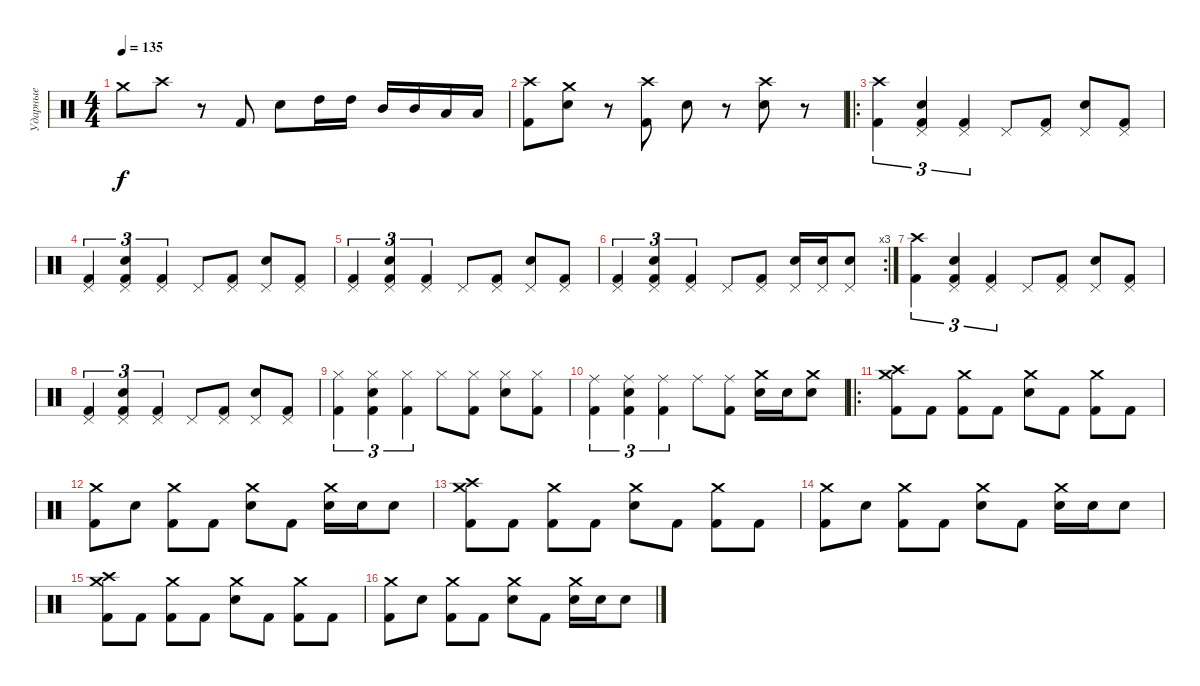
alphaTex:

\track ("Ударные" "Ударные") {instrument percussion}
\staff {score}
\articulation defaults
\ts (4 4)
\tempo 135
\clef neutral
\ks c "Crash medium (hit)".8{dy f} "Crash high (hit)".8
r.8 "Kick (hit) 2".8 "Electric Snare (hit)".8 "High Tom (hit)".16 "High Tom (hit)".16 "Mid Tom (hit)".16 "Mid Tom (hit)".16 "Low Tom (hit)".16 "Low Tom (hit)".16 |
("Kick (hit) 2" "Crash high (hit)").8 ("Electric Snare (hit)" "Crash medium (hit)").8 r.8 ("Kick (hit) 2" "Crash high (hit)").8 "Electric Snare (hit)".8 r.8 ("Electric Snare (hit)" "Crash high (hit)").8 r.8 |
\ro
("Kick (hit) 2" "Crash high (hit)").4{tu (3 2)} ("Kick (hit) 2" "Electric Snare (hit)" "Pedal Hi-Hat (hit)").4{tu (3 2)} ("Kick (hit) 2" "Pedal Hi-Hat (hit)").4{tu (3 2)} "Pedal Hi-Hat (hit)".8 ("Kick (hit) 2" "Pedal Hi-Hat (hit)").8 ("Electric Snare (hit)" "Pedal Hi-Hat (hit)").8 ("Kick (hit) 2" "Pedal Hi-Hat (hit)").8 |
("Kick (hit) 2" "Pedal Hi-Hat (hit)").4{tu (3 2)} ("Kick (hit) 2" "Electric Snare (hit)" "Pedal Hi-Hat (hit)").4{tu (3 2)} ("Kick (hit) 2" "Pedal Hi-Hat (hit)").4{tu (3 2)} "Pedal Hi-Hat (hit)".8 ("Kick (hit) 2" "Pedal Hi-Hat (hit)").8 ("Electric Snare (hit)" "Pedal Hi-Hat (hit)").8 ("Kick (hit) 2" "Pedal Hi-Hat (hit)").8 |
("Kick (hit) 2" "Pedal Hi-Hat (hit)").4{tu (3 2)} ("Kick (hit) 2" "Electric Snare (hit)" "Pedal Hi-Hat (hit)").4{tu (3 2)} ("Kick (hit) 2" "Pedal Hi-Hat (hit)").4{tu (3 2)} "Pedal Hi-Hat (hit)".8 ("Kick (hit) 2" "Pedal Hi-Hat (hit)").8 ("Electric Snare (hit)" "Pedal Hi-Hat (hit)").8 ("Kick (hit) 2" "Pedal Hi-Hat (hit)").8 |
\rc 3
("Kick (hit) 2" "Pedal Hi-Hat (hit)").4{tu (3 2)} ("Kick (hit) 2" "Electric Snare (hit)" "Pedal Hi-Hat (hit)").4{tu (3 2)} ("Kick (hit) 2" "Pedal Hi-Hat (hit)").4{tu (3 2)} "Pedal Hi-Hat (hit)".8 ("Kick (hit) 2" "Pedal Hi-Hat (hit)").8 ("Electric Snare (hit)" "Pedal Hi-Hat (hit)").16 ("Electric Snare (hit)" "Pedal Hi-Hat (hit)").16 ("Electric Snare (hit)" "Pedal Hi-Hat (hit)").8 |
("Kick (hit) 2" "Crash high (hit)").4{tu (3 2)} ("Kick (hit) 2" "Electric Snare (hit)" "Pedal Hi-Hat (hit)").4{tu (3 2)} ("Kick (hit) 2" "Pedal Hi-Hat (hit)").4{tu (3 2)} "Pedal Hi-Hat (hit)".8 ("Kick (hit) 2" "Pedal Hi-Hat (hit)").8 ("Electric Snare (hit)" "Pedal Hi-Hat (hit)").8 ("Kick (hit) 2" "Pedal Hi-Hat (hit)").8 |
("Kick (hit) 2" "Pedal Hi-Hat (hit)").4{tu (3 2)} ("Kick (hit) 2" "Electric Snare (hit)" "Pedal Hi-Hat (hit)").4{tu (3 2)} ("Kick (hit) 2" "Pedal Hi-Hat (hit)").4{tu (3 2)} "Pedal Hi-Hat (hit)".8 ("Kick (hit) 2" "Pedal Hi-Hat (hit)").8 ("Electric Snare (hit)" "Pedal Hi-Hat (hit)").8 ("Kick (hit) 2" "Pedal Hi-Hat (hit)").8 |
("Kick (hit) 2" "Hi-Hat (closed)").4{tu (3 2)} ("Kick (hit) 2" "Electric Snare (hit)" "Hi-Hat (closed)").4{tu (3 2)} ("Kick (hit) 2" "Hi-Hat (closed)").4{tu (3 2)} "Hi-Hat (closed)".8 ("Kick (hit) 2" "Hi-Hat (closed)").8 ("Electric Snare (hit)" "Hi-Hat (closed)").8 ("Kick (hit) 2" "Hi-Hat (closed)").8 |
("Kick (hit) 2" "Ride (middle)").4{tu (3 2)} ("Kick (hit) 2" "Electric Snare (hit)" "Ride (middle)").4{tu (3 2)} ("Kick (hit) 2" "Ride (middle)").4{tu (3 2)} "Ride (middle)".8 ("Kick (hit) 2" "Ride (middle)").8 ("Electric Snare (hit)" "Crash medium (hit)").16 "Electric Snare (hit)".16 ("Electric Snare (hit)" "Crash medium (hit)").8 |
\ro
("Kick (hit) 2" "Crash medium (hit)" "Crash high (hit)").8 "Kick (hit) 2".8 ("Kick (hit) 2" "Crash medium (hit)").8 "Kick (hit) 2".8 ("Electric Snare (hit)" "Crash medium (hit)").8 "Kick (hit) 2".8 ("Kick (hit) 2" "Crash medium (hit)").8 "Kick (hit) 2".8 |
("Kick (hit) 2" "Crash medium (hit)").8 "Electric Snare (hit)".8 ("Kick (hit) 2" "Crash medium (hit)").8 "Kick (hit) 2".8 ("Electric Snare (hit)" "Crash medium (hit)").8 "Kick (hit) 2".8 ("Electric Snare (hit)" "Crash medium (hit)").16 "Electric Snare (hit)".16 "Electric Snare (hit)".8 |
("Kick (hit) 2" "Crash medium (hit)" "Crash high (hit)").8 "Kick (hit) 2".8 ("Kick (hit) 2" "Crash medium (hit)").8 "Kick (hit) 2".8 ("Electric Snare (hit)" "Crash medium (hit)").8 "Kick (hit) 2".8 ("Kick (hit) 2" "Crash medium (hit)").8 "Kick (hit) 2".8 |
("Kick (hit) 2" "Crash medium (hit)").8 "Electric Snare (hit)".8 ("Kick (hit) 2" "Crash medium (hit)").8 "Kick (hit) 2".8 ("Electric Snare (hit)" "Crash medium (hit)").8 "Kick (hit) 2".8 ("Electric Snare (hit)" "Crash medium (hit)").16 "Electric Snare (hit)".16 "Electric Snare (hit)".8 |
("Kick (hit) 2" "Crash medium (hit)" "Crash high (hit)").8 "Kick (hit) 2".8 ("Kick (hit) 2" "Crash medium (hit)").8 "Kick (hit) 2".8 ("Electric Snare (hit)" "Crash medium (hit)").8 "Kick (hit) 2".8 ("Kick (hit) 2" "Crash medium (hit)").8 "Kick (hit) 2".8 |
("Kick (hit) 2" "Crash medium (hit)").8 "Electric Snare (hit)".8 ("Kick (hit) 2" "Crash medium (hit)").8 "Kick (hit) 2".8 ("Electric Snare (hit)" "Crash medium (hit)").8 "Kick (hit) 2".8 ("Electric Snare (hit)" "Crash medium (hit)").16 "Electric Snare (hit)".16 "Electric Snare (hit)".8
